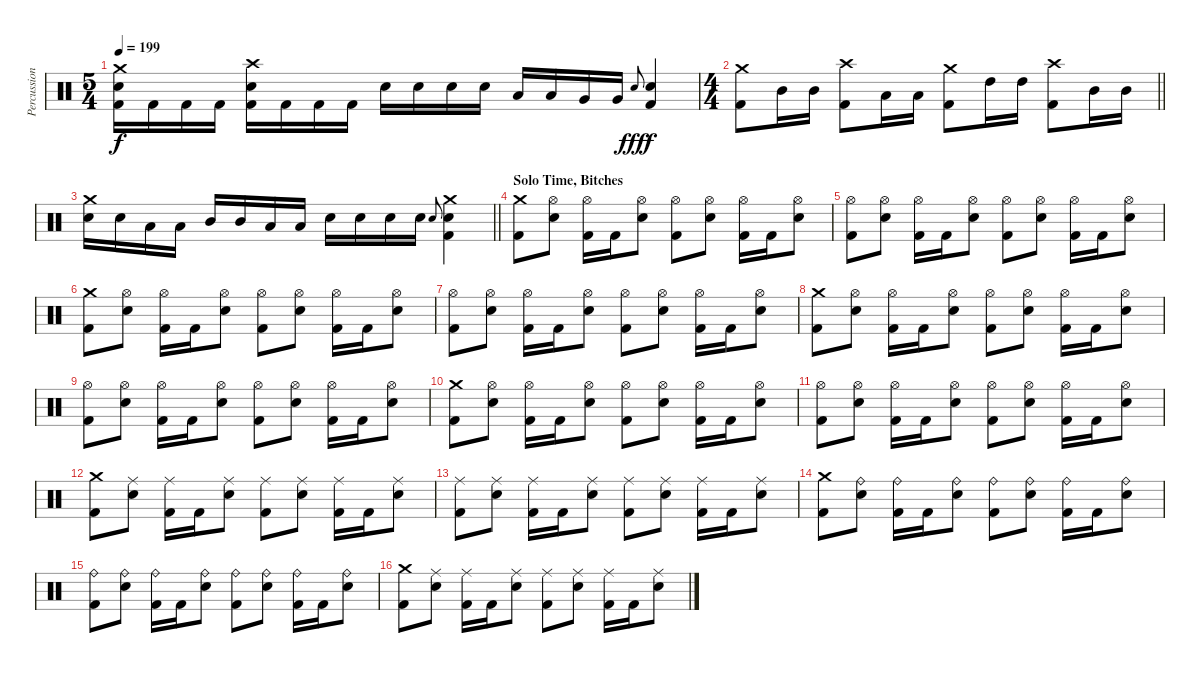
\track ("Percussion" "Percussion") {instrument percussion}
\staff {score}
\articulation defaults
\ts (5 4)
\tempo 199
\clef neutral
\ks c
("Crash medium (hit)" "Electric Snare (hit)" "Kick (hit) 2").16{dy f} "Kick (hit) 2".16 "Kick (hit) 2".16 "Kick (hit) 2".16 ("Crash high (hit)" "Electric Snare (hit)" "Kick (hit) 2").16 "Kick (hit) 2".16 "Kick (hit) 2".16 "Kick (hit) 2".16 "Electric Snare (hit)".16 "Electric Snare (hit)".16 "Electric Snare (hit)".16 "Electric Snare (hit)".16 "Low Floor Tom (hit)".16 "Low Floor Tom (hit)".16 "Very Low Tom (hit)".16 "Very Low Tom (hit)".16 "Electric Snare (hit)".8{gr onbeat dy fff} ("Electric Snare (hit)" "Kick (hit) 2").4{dy f} |
\ts (4 4)
\barLineRight lightlight
("Crash medium (hit)" "Kick (hit) 2").8 "Mid Tom (hit)".16 "Mid Tom (hit)".16 ("Crash high (hit)" "Kick (hit) 2").8 "Low Tom (hit)".16 "Low Tom (hit)".16 ("Crash medium (hit)" "Kick (hit) 2").8 "High Tom (hit)".16 "High Tom (hit)".16 ("Crash high (hit)" "Kick (hit) 2").8 "Mid Tom (hit)".16 "Mid Tom (hit)".16 |
\barLineRight lightlight
("Crash medium (hit)" "Electric Snare (hit)").16 "Electric Snare (hit)".16 "Low Floor Tom (hit)".16 "Low Floor Tom (hit)".16 "Mid Tom (hit)".16 "Mid Tom (hit)".16 "Low Tom (hit)".16 "Low Tom (hit)".16 "Electric Snare (hit)".16 "Electric Snare (hit)".16 "Electric Snare (hit)".16 "Electric Snare (hit)".16 "Electric Snare (hit)".8{gr onbeat} ("Crash medium (hit)" "Electric Snare (hit)" "Kick (hit) 2").4 |
\section ("" "Solo Time, Bitches")
("Crash medium (hit)" "Kick (hit) 2").8 ("Hi-Hat (open)" "Electric Snare (hit)").8 ("Hi-Hat (open)" "Kick (hit) 2").16 "Kick (hit) 2".16 ("Hi-Hat (open)" "Electric Snare (hit)").8 ("Hi-Hat (open)" "Kick (hit) 2").8 ("Hi-Hat (open)" "Electric Snare (hit)").8 ("Hi-Hat (open)" "Kick (hit) 2").16 "Kick (hit) 2".16 ("Hi-Hat (open)" "Electric Snare (hit)").8 |
("Hi-Hat (open)" "Kick (hit) 2").8 ("Hi-Hat (open)" "Electric Snare (hit)").8 ("Hi-Hat (open)" "Kick (hit) 2").16 "Kick (hit) 2".16 ("Hi-Hat (open)" "Electric Snare (hit)").8 ("Hi-Hat (open)" "Kick (hit) 2").8 ("Hi-Hat (open)" "Electric Snare (hit)").8 ("Hi-Hat (open)" "Kick (hit) 2").16 "Kick (hit) 2".16 ("Hi-Hat (open)" "Electric Snare (hit)").8 |
("Crash medium (hit)" "Kick (hit) 2").8 ("Hi-Hat (open)" "Electric Snare (hit)").8 ("Hi-Hat (open)" "Kick (hit) 2").16 "Kick (hit) 2".16 ("Hi-Hat (open)" "Electric Snare (hit)").8 ("Hi-Hat (open)" "Kick (hit) 2").8 ("Hi-Hat (open)" "Electric Snare (hit)").8 ("Hi-Hat (open)" "Kick (hit) 2").16 "Kick (hit) 2".16 ("Hi-Hat (open)" "Electric Snare (hit)").8 |
("Hi-Hat (open)" "Kick (hit) 2").8 ("Hi-Hat (open)" "Electric Snare (hit)").8 ("Hi-Hat (open)" "Kick (hit) 2").16 "Kick (hit) 2".16 ("Hi-Hat (open)" "Electric Snare (hit)").8 ("Hi-Hat (open)" "Kick (hit) 2").8 ("Hi-Hat (open)" "Electric Snare (hit)").8 ("Hi-Hat (open)" "Kick (hit) 2").16 "Kick (hit) 2".16 ("Hi-Hat (open)" "Electric Snare (hit)").8 |
("Crash medium (hit)" "Kick (hit) 2").8 ("Hi-Hat (open)" "Electric Snare (hit)").8 ("Hi-Hat (open)" "Kick (hit) 2").16 "Kick (hit) 2".16 ("Hi-Hat (open)" "Electric Snare (hit)").8 ("Hi-Hat (open)" "Kick (hit) 2").8 ("Hi-Hat (open)" "Electric Snare (hit)").8 ("Hi-Hat (open)" "Kick (hit) 2").16 "Kick (hit) 2".16 ("Hi-Hat (open)" "Electric Snare (hit)").8 |
("Hi-Hat (open)" "Kick (hit) 2").8 ("Hi-Hat (open)" "Electric Snare (hit)").8 ("Hi-Hat (open)" "Kick (hit) 2").16 "Kick (hit) 2".16 ("Hi-Hat (open)" "Electric Snare (hit)").8 ("Hi-Hat (open)" "Kick (hit) 2").8 ("Hi-Hat (open)" "Electric Snare (hit)").8 ("Hi-Hat (open)" "Kick (hit) 2").16 "Kick (hit) 2".16 ("Hi-Hat (open)" "Electric Snare (hit)").8 |
("Crash medium (hit)" "Kick (hit) 2").8 ("Hi-Hat (open)" "Electric Snare (hit)").8 ("Hi-Hat (open)" "Kick (hit) 2").16 "Kick (hit) 2".16 ("Hi-Hat (open)" "Electric Snare (hit)").8 ("Hi-Hat (open)" "Kick (hit) 2").8 ("Hi-Hat (open)" "Electric Snare (hit)").8 ("Hi-Hat (open)" "Kick (hit) 2").16 "Kick (hit) 2".16 ("Hi-Hat (open)" "Electric Snare (hit)").8 |
("Hi-Hat (open)" "Kick (hit) 2").8 ("Hi-Hat (open)" "Electric Snare (hit)").8 ("Hi-Hat (open)" "Kick (hit) 2").16 "Kick (hit) 2".16 ("Hi-Hat (open)" "Electric Snare (hit)").8 ("Hi-Hat (open)" "Kick (hit) 2").8 ("Hi-Hat (open)" "Electric Snare (hit)").8 ("Hi-Hat (open)" "Kick (hit) 2").16 "Kick (hit) 2".16 ("Hi-Hat (open)" "Electric Snare (hit)").8 |
("Crash medium (hit)" "Kick (hit) 2").8 ("Ride (middle)" "Electric Snare (hit)").8 ("Ride (middle)" "Kick (hit) 2").16 "Kick (hit) 2".16 ("Ride (middle)" "Electric Snare (hit)").8 ("Ride (middle)" "Kick (hit) 2").8 ("Ride (middle)" "Electric Snare (hit)").8 ("Ride (middle)" "Kick (hit) 2").16 "Kick (hit) 2".16 ("Ride (middle)" "Electric Snare (hit)").8 |
("Ride (middle)" "Kick (hit) 2").8 ("Ride (middle)" "Electric Snare (hit)").8 ("Ride (middle)" "Kick (hit) 2").16 "Kick (hit) 2".16 ("Ride (middle)" "Electric Snare (hit)").8 ("Ride (middle)" "Kick (hit) 2").8 ("Ride (middle)" "Electric Snare (hit)").8 ("Ride (middle)" "Kick (hit) 2").16 "Kick (hit) 2".16 ("Ride (middle)" "Electric Snare (hit)").8 |
("Crash medium (hit)" "Kick (hit) 2").8 ("Ride (bell)" "Electric Snare (hit)").8 ("Ride (bell)" "Kick (hit) 2").16 "Kick (hit) 2".16 ("Ride (bell)" "Electric Snare (hit)").8 ("Ride (bell)" "Kick (hit) 2").8 ("Ride (bell)" "Electric Snare (hit)").8 ("Ride (bell)" "Kick (hit) 2").16 "Kick (hit) 2".16 ("Ride (bell)" "Electric Snare (hit)").8 |
("Ride (bell)" "Kick (hit) 2").8 ("Ride (bell)" "Electric Snare (hit)").8 ("Ride (bell)" "Kick (hit) 2").16 "Kick (hit) 2".16 ("Ride (bell)" "Electric Snare (hit)").8 ("Ride (bell)" "Kick (hit) 2").8 ("Ride (bell)" "Electric Snare (hit)").8 ("Ride (bell)" "Kick (hit) 2").16 "Kick (hit) 2".16 ("Ride (bell)" "Electric Snare (hit)").8 |
("Crash medium (hit)" "Kick (hit) 2").8 ("Ride (middle)" "Electric Snare (hit)").8 ("Ride (middle)" "Kick (hit) 2").16 "Kick (hit) 2".16 ("Ride (middle)" "Electric Snare (hit)").8 ("Ride (middle)" "Kick (hit) 2").8 ("Ride (middle)" "Electric Snare (hit)").8 ("Ride (middle)" "Kick (hit) 2").16 "Kick (hit) 2".16 ("Ride (middle)" "Electric Snare (hit)").8
